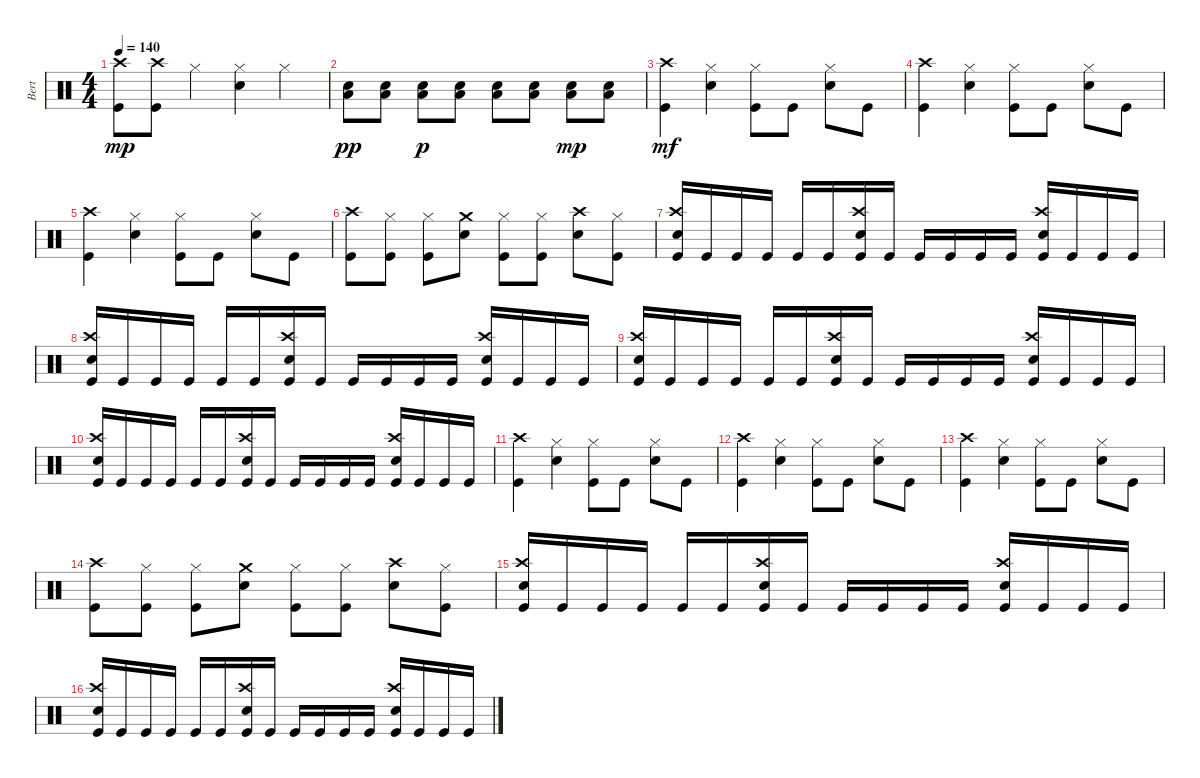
\track ("Bert" "Bert") {instrument percussion}
\staff {score}
\articulation defaults
\ts (4 4)
\tempo 140
\clef neutral
\ks c
("Kick (hit)" "Crash high (hit)").8{dy mp} ("Crash high (hit)" "Kick (hit)").8 "Hi-Hat (closed)".4 ("Electric Snare (hit)" "Hi-Hat (closed)").4 "Hi-Hat (closed)".4 |
("Electric Snare (hit)" "Low Floor Tom (hit)").8{dy pp} ("Electric Snare (hit)" "Low Floor Tom (hit)").8 ("Electric Snare (hit)" "Low Floor Tom (hit)").8{dy p} ("Electric Snare (hit)" "Low Floor Tom (hit)").8 ("Electric Snare (hit)" "Low Floor Tom (hit)").8 ("Low Floor Tom (hit)" "Electric Snare (hit)").8 ("Low Floor Tom (hit)" "Electric Snare (hit)").8{dy mp} ("Low Floor Tom (hit)" "Electric Snare (hit)").8 |
("Crash high (hit)" "Kick (hit)").4{dy mf} ("Electric Snare (hit)" "Hi-Hat (closed)").4 ("Hi-Hat (closed)" "Kick (hit)").8 "Kick (hit)".8 ("Electric Snare (hit)" "Hi-Hat (closed)").8 "Kick (hit)".8 |
("Crash high (hit)" "Kick (hit)").4 ("Hi-Hat (closed)" "Electric Snare (hit)").4 ("Hi-Hat (closed)" "Kick (hit)").8 "Kick (hit)".8 ("Hi-Hat (closed)" "Electric Snare (hit)").8 "Kick (hit)".8 |
("Crash high (hit)" "Kick (hit)").4 ("Electric Snare (hit)" "Hi-Hat (closed)").4 ("Kick (hit)" "Hi-Hat (closed)").8 "Kick (hit)".8 ("Electric Snare (hit)" "Hi-Hat (closed)").8 "Kick (hit)".8 |
("Kick (hit)" "Crash high (hit)").8 ("Kick (hit)" "Hi-Hat (closed)").8 ("Kick (hit)" "Hi-Hat (closed)").8 ("Electric Snare (hit)" "Crash medium (hit)").8 ("Kick (hit)" "Hi-Hat (closed)").8 ("Hi-Hat (closed)" "Kick (hit)").8 ("Crash high (hit)" "Electric Snare (hit)").8 ("Hi-Hat (closed)" "Kick (hit)").8 |
("Kick (hit)" "Crash high (hit)" "Electric Snare (hit)").16 "Kick (hit)".16 "Kick (hit)".16 "Kick (hit)".16 "Kick (hit)".16 "Kick (hit)".16 ("Kick (hit)" "Electric Snare (hit)" "Crash high (hit)").16 "Kick (hit)".16 "Kick (hit)".16 "Kick (hit)".16 "Kick (hit)".16 "Kick (hit)".16 ("Electric Snare (hit)" "Crash high (hit)" "Kick (hit)").16 "Kick (hit)".16 "Kick (hit)".16 "Kick (hit)".16 |
("Kick (hit)" "Crash high (hit)" "Electric Snare (hit)").16 "Kick (hit)".16 "Kick (hit)".16 "Kick (hit)".16 "Kick (hit)".16 "Kick (hit)".16 ("Kick (hit)" "Electric Snare (hit)" "Crash high (hit)").16 "Kick (hit)".16 "Kick (hit)".16 "Kick (hit)".16 "Kick (hit)".16 "Kick (hit)".16 ("Electric Snare (hit)" "Kick (hit)" "Crash high (hit)").16 "Kick (hit)".16 "Kick (hit)".16 "Kick (hit)".16 |
("Kick (hit)" "Electric Snare (hit)" "Crash high (hit)").16 "Kick (hit)".16 "Kick (hit)".16 "Kick (hit)".16 "Kick (hit)".16 "Kick (hit)".16 ("Kick (hit)" "Electric Snare (hit)" "Crash high (hit)").16 "Kick (hit)".16 "Kick (hit)".16 "Kick (hit)".16 "Kick (hit)".16 "Kick (hit)".16 ("Electric Snare (hit)" "Kick (hit)" "Crash high (hit)").16 "Kick (hit)".16 "Kick (hit)".16 "Kick (hit)".16 |
("Crash high (hit)" "Electric Snare (hit)" "Kick (hit)").16 "Kick (hit)".16 "Kick (hit)".16 "Kick (hit)".16 "Kick (hit)".16 "Kick (hit)".16 ("Kick (hit)" "Electric Snare (hit)" "Crash high (hit)").16 "Kick (hit)".16 "Kick (hit)".16 "Kick (hit)".16 "Kick (hit)".16 "Kick (hit)".16 ("Kick (hit)" "Electric Snare (hit)" "Crash high (hit)").16 "Kick (hit)".16 "Kick (hit)".16 "Kick (hit)".16 |
("Crash high (hit)" "Kick (hit)").4 ("Electric Snare (hit)" "Hi-Hat (closed)").4 ("Hi-Hat (closed)" "Kick (hit)").8 "Kick (hit)".8 ("Hi-Hat (closed)" "Electric Snare (hit)").8 "Kick (hit)".8 |
("Crash high (hit)" "Kick (hit)").4 ("Hi-Hat (closed)" "Electric Snare (hit)").4 ("Hi-Hat (closed)" "Kick (hit)").8 "Kick (hit)".8 ("Hi-Hat (closed)" "Electric Snare (hit)").8 "Kick (hit)".8 |
("Crash high (hit)" "Kick (hit)").4 ("Electric Snare (hit)" "Hi-Hat (closed)").4 ("Kick (hit)" "Hi-Hat (closed)").8 "Kick (hit)".8 ("Electric Snare (hit)" "Hi-Hat (closed)").8 "Kick (hit)".8 |
("Kick (hit)" "Crash high (hit)").8 ("Kick (hit)" "Hi-Hat (closed)").8 ("Kick (hit)" "Hi-Hat (closed)").8 ("Electric Snare (hit)" "Crash medium (hit)").8 ("Kick (hit)" "Hi-Hat (closed)").8 ("Hi-Hat (closed)" "Kick (hit)").8 ("Crash high (hit)" "Electric Snare (hit)").8 ("Hi-Hat (closed)" "Kick (hit)").8 |
("Kick (hit)" "Crash high (hit)" "Electric Snare (hit)").16 "Kick (hit)".16 "Kick (hit)".16 "Kick (hit)".16 "Kick (hit)".16 "Kick (hit)".16 ("Kick (hit)" "Electric Snare (hit)" "Crash high (hit)").16 "Kick (hit)".16 "Kick (hit)".16 "Kick (hit)".16 "Kick (hit)".16 "Kick (hit)".16 ("Electric Snare (hit)" "Crash high (hit)" "Kick (hit)").16 "Kick (hit)".16 "Kick (hit)".16 "Kick (hit)".16 |
("Kick (hit)" "Crash high (hit)" "Electric Snare (hit)").16 "Kick (hit)".16 "Kick (hit)".16 "Kick (hit)".16 "Kick (hit)".16 "Kick (hit)".16 ("Kick (hit)" "Electric Snare (hit)" "Crash high (hit)").16 "Kick (hit)".16 "Kick (hit)".16 "Kick (hit)".16 "Kick (hit)".16 "Kick (hit)".16 ("Electric Snare (hit)" "Kick (hit)" "Crash high (hit)").16 "Kick (hit)".16 "Kick (hit)".16 "Kick (hit)".16
